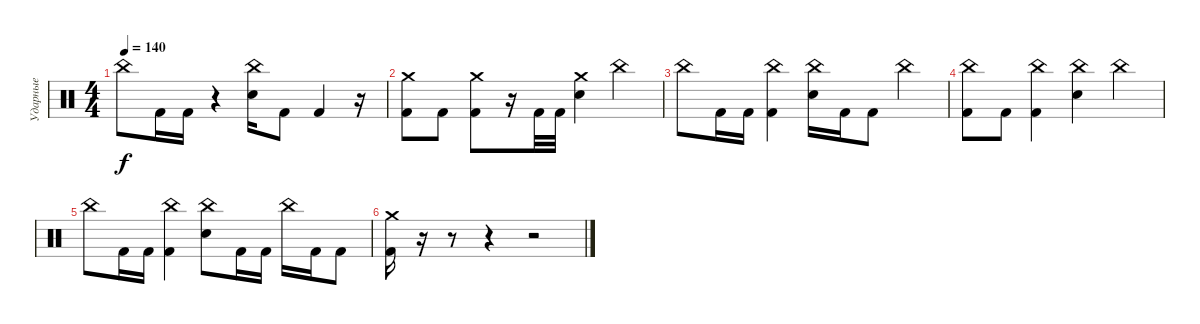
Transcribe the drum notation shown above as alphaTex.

\track ("Ударные" "Ударные") {instrument percussion}
\staff {score}
\articulation defaults
\ts (4 4)
\tempo 140
\clef neutral
\ks c "China (hit)".8{dy f} "Kick (hit) 2".16 "Kick (hit) 2".16
r.4 ("China (hit)" "Electric Snare (hit)").16 "Kick (hit) 2".8 "Kick (hit) 2".4 r.16 |
("Crash medium (hit)" "Kick (hit) 2").8 "Kick (hit) 2".8 ("Crash medium (hit)" "Kick (hit) 2").8 r.16 "Kick (hit) 2".32 "Kick (hit) 2".32 ("Crash medium (hit)" "Electric Snare (hit)").4 "China (hit)".4 |
"China (hit)".8 "Kick (hit) 2".16 "Kick (hit) 2".16 ("China (hit)" "Kick (hit) 2").4 ("China (hit)" "Electric Snare (hit)").16 "Kick (hit) 2".16 "Kick (hit) 2".8 "China (hit)".4 |
("China (hit)" "Kick (hit) 2").8 "Kick (hit) 2".8 ("China (hit)" "Kick (hit) 2").4 ("China (hit)" "Electric Snare (hit)").4 "China (hit)".4 |
"China (hit)".8 "Kick (hit) 2".16 "Kick (hit) 2".16 ("China (hit)" "Kick (hit) 2").4 ("China (hit)" "Electric Snare (hit)").8 "Kick (hit) 2".16 "Kick (hit) 2".16 "China (hit)".16 "Kick (hit) 2".16 "Kick (hit) 2".8 |
("Crash medium (hit)" "Kick (hit) 2").16 r.16 r.8 r.4 r.2
